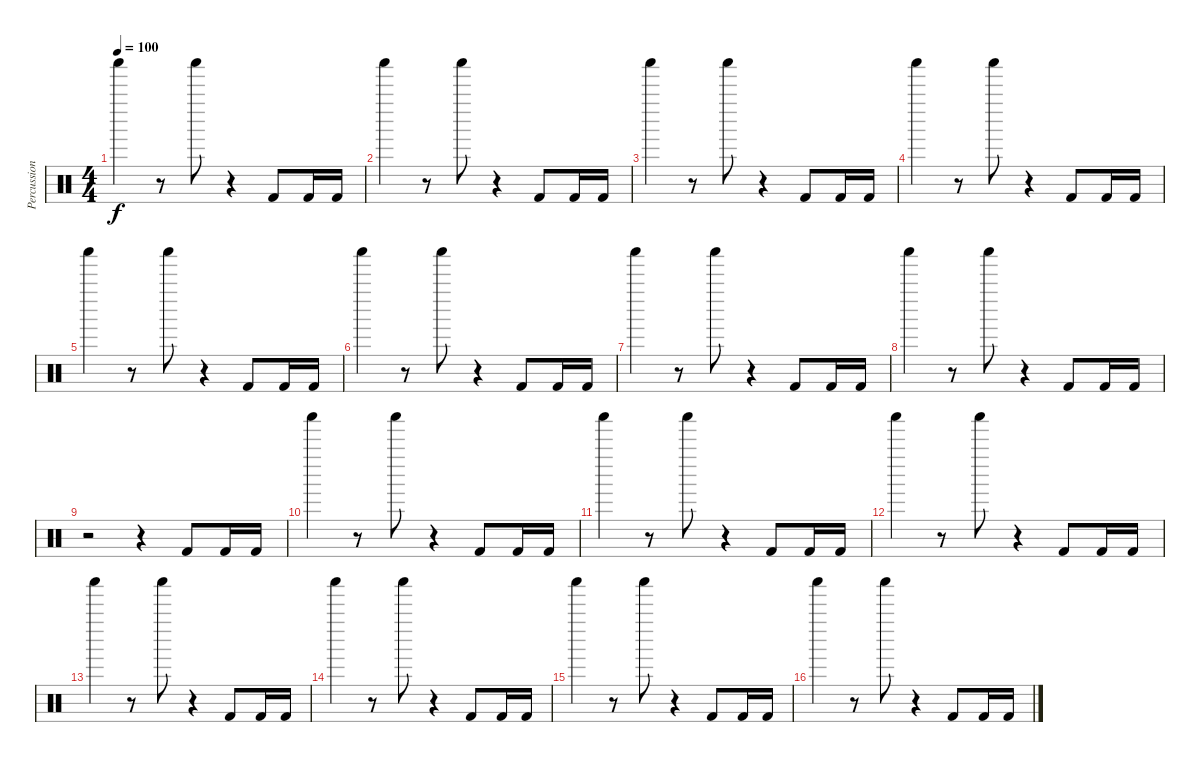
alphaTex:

\track ("Percussion" "Percussion") {instrument percussion}
\staff {score}
\articulation defaults
\ts (4 4)
\tempo 100
\clef neutral
\ks c "Shaker (hit)".4{dy f}
r.8 "Shaker (hit)".8 r.4 "Kick (hit) 2".8 "Kick (hit) 2".16 "Kick (hit) 2".16 |
"Shaker (hit)".4 r.8 "Shaker (hit)".8 r.4 "Kick (hit) 2".8 "Kick (hit) 2".16 "Kick (hit) 2".16 |
"Shaker (hit)".4 r.8 "Shaker (hit)".8 r.4 "Kick (hit) 2".8 "Kick (hit) 2".16 "Kick (hit) 2".16 |
"Shaker (hit)".4 r.8 "Shaker (hit)".8 r.4 "Kick (hit) 2".8 "Kick (hit) 2".16 "Kick (hit) 2".16 |
"Shaker (hit)".4 r.8 "Shaker (hit)".8 r.4 "Kick (hit) 2".8 "Kick (hit) 2".16 "Kick (hit) 2".16 |
"Shaker (hit)".4 r.8 "Shaker (hit)".8 r.4 "Kick (hit) 2".8 "Kick (hit) 2".16 "Kick (hit) 2".16 |
"Shaker (hit)".4 r.8 "Shaker (hit)".8 r.4 "Kick (hit) 2".8 "Kick (hit) 2".16 "Kick (hit) 2".16 |
"Shaker (hit)".4 r.8 "Shaker (hit)".8 r.4 "Kick (hit) 2".8 "Kick (hit) 2".16 "Kick (hit) 2".16 |
r.2 r.4 "Kick (hit) 2".8 "Kick (hit) 2".16 "Kick (hit) 2".16 |
"Shaker (hit)".4 r.8 "Shaker (hit)".8 r.4 "Kick (hit) 2".8 "Kick (hit) 2".16 "Kick (hit) 2".16 |
"Shaker (hit)".4 r.8 "Shaker (hit)".8 r.4 "Kick (hit) 2".8 "Kick (hit) 2".16 "Kick (hit) 2".16 |
"Shaker (hit)".4 r.8 "Shaker (hit)".8 r.4 "Kick (hit) 2".8 "Kick (hit) 2".16 "Kick (hit) 2".16 |
"Shaker (hit)".4 r.8 "Shaker (hit)".8 r.4 "Kick (hit) 2".8 "Kick (hit) 2".16 "Kick (hit) 2".16 |
"Shaker (hit)".4 r.8 "Shaker (hit)".8 r.4 "Kick (hit) 2".8 "Kick (hit) 2".16 "Kick (hit) 2".16 |
"Shaker (hit)".4 r.8 "Shaker (hit)".8 r.4 "Kick (hit) 2".8 "Kick (hit) 2".16 "Kick (hit) 2".16 |
"Shaker (hit)".4 r.8 "Shaker (hit)".8 r.4 "Kick (hit) 2".8 "Kick (hit) 2".16 "Kick (hit) 2".16
